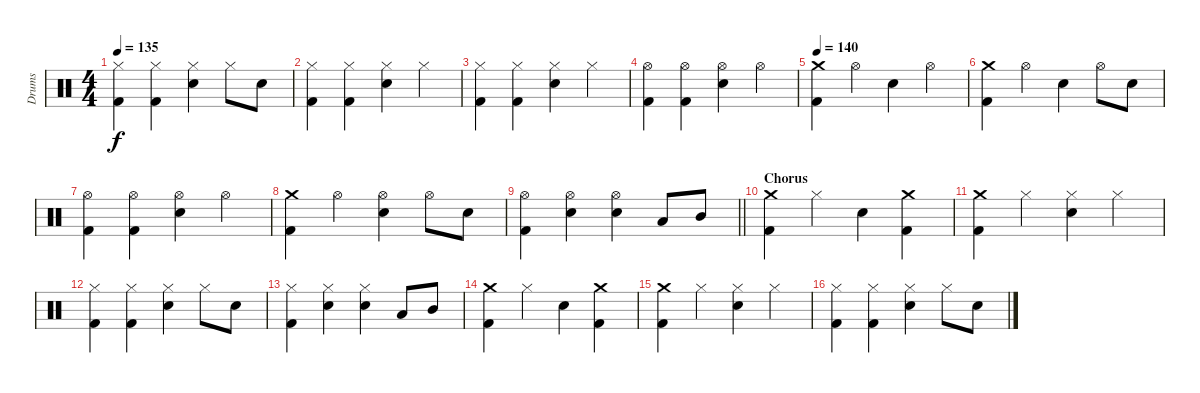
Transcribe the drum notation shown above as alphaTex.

\track ("Drums" "Drums") {mute instrument percussion}
\staff {score}
\articulation defaults
\ts (4 4)
\tempo 135
\clef neutral
\ks c
("Hi-Hat (closed)" "Kick (hit) 2").4{dy f} ("Hi-Hat (closed)" "Kick (hit) 2").4 ("Hi-Hat (closed)" "Snare (hit) 2").4 "Hi-Hat (closed)".8 "Snare (hit) 2".8 |
("Hi-Hat (closed)" "Kick (hit) 2").4 ("Hi-Hat (closed)" "Kick (hit) 2").4 ("Hi-Hat (closed)" "Snare (hit) 2").4 "Hi-Hat (closed)".4 |
("Hi-Hat (closed)" "Kick (hit) 2").4 ("Hi-Hat (closed)" "Kick (hit) 2").4 ("Hi-Hat (closed)" "Snare (hit) 2").4 "Hi-Hat (closed)".4 |
("Hi-Hat (open)" "Kick (hit) 2").4 ("Hi-Hat (open)" "Kick (hit) 2").4 ("Hi-Hat (open)" "Snare (hit) 2").4 "Hi-Hat (open)".4 |
\tempo 140
("Crash medium (hit)" "Kick (hit) 2").4 "Hi-Hat (open)".4 "Snare (hit) 2".4 "Hi-Hat (open)".4 |
("Crash medium (hit)" "Kick (hit) 2").4 "Hi-Hat (open)".4 "Snare (hit) 2".4 "Hi-Hat (open)".8 "Snare (hit) 2".8 |
("Hi-Hat (open)" "Kick (hit) 2").4 ("Hi-Hat (open)" "Kick (hit) 2").4 ("Hi-Hat (open)" "Snare (hit) 2").4 "Hi-Hat (open)".4 |
("Crash medium (hit)" "Kick (hit) 2").4 "Hi-Hat (open)".4 ("Hi-Hat (open)" "Snare (hit) 2").4 "Hi-Hat (open)".8 "Snare (hit) 2".8 |
\barLineRight lightlight
("Hi-Hat (open)" "Kick (hit) 2").4 ("Hi-Hat (open)" "Snare (hit) 2").4 ("Hi-Hat (open)" "Snare (hit) 2").4 "Low Tom (hit)".8 "Mid Tom (hit)".8 |
\section ("" "Chorus")
("Crash medium (hit)" "Kick (hit) 2").4 "Hi-Hat (closed)".4 "Snare (hit) 2".4 ("Crash medium (hit)" "Kick (hit) 2").4 |
("Crash medium (hit)" "Kick (hit) 2").4 "Hi-Hat (closed)".4 ("Hi-Hat (closed)" "Snare (hit) 2").4 "Hi-Hat (closed)".4 |
("Hi-Hat (closed)" "Kick (hit) 2").4 ("Hi-Hat (closed)" "Kick (hit) 2").4 ("Hi-Hat (closed)" "Snare (hit) 2").4 "Hi-Hat (closed)".8 "Snare (hit) 2".8 |
("Hi-Hat (closed)" "Kick (hit) 2").4 ("Hi-Hat (closed)" "Snare (hit) 2").4 ("Hi-Hat (closed)" "Snare (hit) 2").4 "Low Tom (hit)".8 "Mid Tom (hit)".8 |
("Crash medium (hit)" "Kick (hit) 2").4 "Hi-Hat (closed)".4 "Snare (hit) 2".4 ("Crash medium (hit)" "Kick (hit) 2").4 |
("Crash medium (hit)" "Kick (hit) 2").4 "Hi-Hat (closed)".4 ("Hi-Hat (closed)" "Snare (hit) 2").4 "Hi-Hat (closed)".4 |
("Hi-Hat (closed)" "Kick (hit) 2").4 ("Hi-Hat (closed)" "Kick (hit) 2").4 ("Hi-Hat (closed)" "Snare (hit) 2").4 "Hi-Hat (closed)".8 "Snare (hit) 2".8
